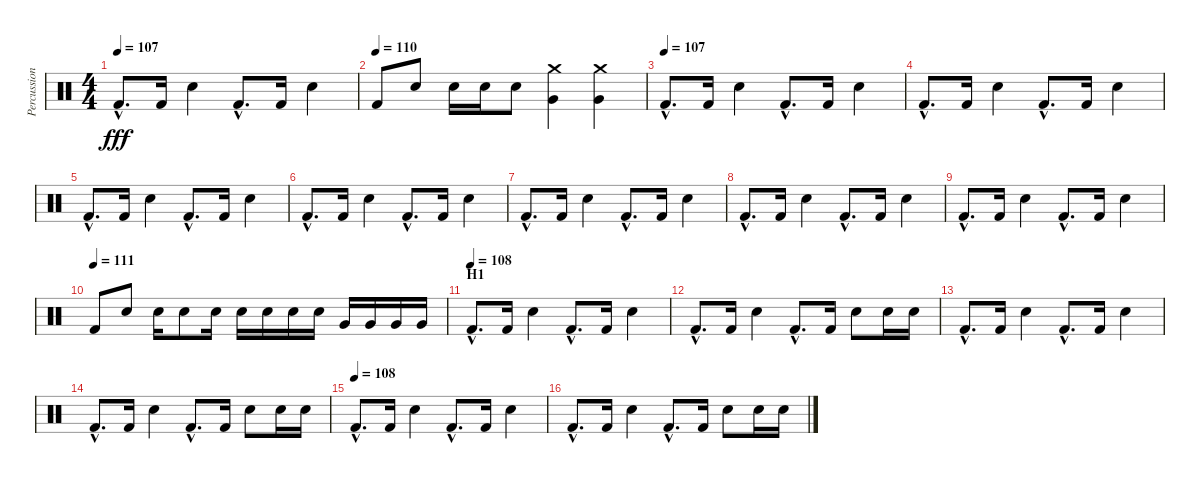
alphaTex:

\track ("Percussion" "Percussion") {instrument percussion}
\staff {score}
\articulation defaults
\ts (4 4)
\tempo 107
\clef neutral
\ks c "Kick (hit) 2"{hac}.8{d dy fff} "Kick (hit) 2".16 "Electric Snare (hit)".4 "Kick (hit) 2"{hac}.8{d} "Kick (hit) 2".16 "Electric Snare (hit)".4
|
\tempo (110)
"Kick (hit) 2".8 "Electric Snare (hit)".8 "Electric Snare (hit)".16 "Electric Snare (hit)".16 "Electric Snare (hit)".8 ("Very Low Tom (hit)" "Crash medium (hit)").4 ("Very Low Tom (hit)" "Crash medium (hit)").4 |
\tempo (107)
"Kick (hit) 2"{hac}.8{d} "Kick (hit) 2".16 "Electric Snare (hit)".4 "Kick (hit) 2"{hac}.8{d} "Kick (hit) 2".16 "Electric Snare (hit)".4 |
"Kick (hit) 2"{hac}.8{d} "Kick (hit) 2".16 "Electric Snare (hit)".4 "Kick (hit) 2"{hac}.8{d} "Kick (hit) 2".16 "Electric Snare (hit)".4 |
"Kick (hit) 2"{hac}.8{d} "Kick (hit) 2".16 "Electric Snare (hit)".4 "Kick (hit) 2"{hac}.8{d} "Kick (hit) 2".16 "Electric Snare (hit)".4 |
"Kick (hit) 2"{hac}.8{d} "Kick (hit) 2".16 "Electric Snare (hit)".4 "Kick (hit) 2"{hac}.8{d} "Kick (hit) 2".16 "Electric Snare (hit)".4 |
"Kick (hit) 2"{hac}.8{d} "Kick (hit) 2".16 "Electric Snare (hit)".4 "Kick (hit) 2"{hac}.8{d} "Kick (hit) 2".16 "Electric Snare (hit)".4 |
"Kick (hit) 2"{hac}.8{d} "Kick (hit) 2".16 "Electric Snare (hit)".4 "Kick (hit) 2"{hac}.8{d} "Kick (hit) 2".16 "Electric Snare (hit)".4 |
"Kick (hit) 2"{hac}.8{d} "Kick (hit) 2".16 "Electric Snare (hit)".4 "Kick (hit) 2"{hac}.8{d} "Kick (hit) 2".16 "Electric Snare (hit)".4 |
\tempo (111)
"Kick (hit) 2".8 "Electric Snare (hit)".8 "Electric Snare (hit)".16 "Electric Snare (hit)".8 "Electric Snare (hit)".16 "Electric Snare (hit)".16 "Electric Snare (hit)".16 "Electric Snare (hit)".16 "Electric Snare (hit)".16 "Very Low Tom (hit)".16 "Very Low Tom (hit)".16 "Very Low Tom (hit)".16 "Very Low Tom (hit)".16 |
\section ("" "H1")
\tempo (108)
"Kick (hit) 2"{hac}.8{d} "Kick (hit) 2".16 "Electric Snare (hit)".4 "Kick (hit) 2"{hac}.8{d} "Kick (hit) 2".16 "Electric Snare (hit)".4 |
"Kick (hit) 2"{hac}.8{d} "Kick (hit) 2".16 "Electric Snare (hit)".4 "Kick (hit) 2"{hac}.8{d} "Kick (hit) 2".16 "Electric Snare (hit)".8 "Electric Snare (hit)".16 "Electric Snare (hit)".16 |
"Kick (hit) 2"{hac}.8{d} "Kick (hit) 2".16 "Electric Snare (hit)".4 "Kick (hit) 2"{hac}.8{d} "Kick (hit) 2".16 "Electric Snare (hit)".4 |
"Kick (hit) 2"{hac}.8{d} "Kick (hit) 2".16 "Electric Snare (hit)".4 "Kick (hit) 2"{hac}.8{d} "Kick (hit) 2".16 "Electric Snare (hit)".8 "Electric Snare (hit)".16 "Electric Snare (hit)".16 |
\tempo (108)
"Kick (hit) 2"{hac}.8{d} "Kick (hit) 2".16 "Electric Snare (hit)".4 "Kick (hit) 2"{hac}.8{d} "Kick (hit) 2".16 "Electric Snare (hit)".4 |
"Kick (hit) 2"{hac}.8{d} "Kick (hit) 2".16 "Electric Snare (hit)".4 "Kick (hit) 2"{hac}.8{d} "Kick (hit) 2".16 "Electric Snare (hit)".8 "Electric Snare (hit)".16 "Electric Snare (hit)".16
